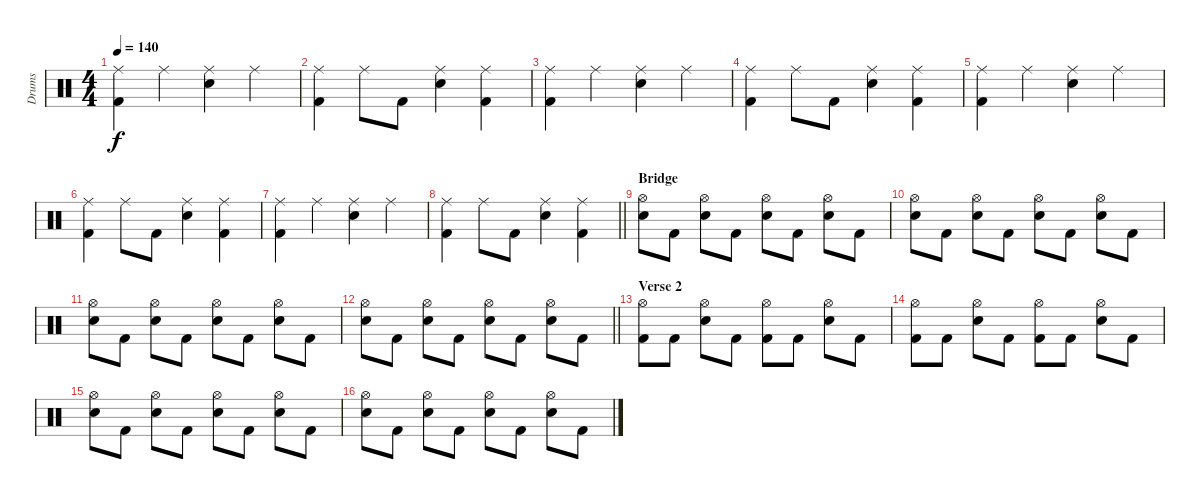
\track ("Drums" "Drums") {instrument percussion}
\staff {score}
\articulation defaults
\ts (4 4)
\tempo 140
\clef neutral
\ks c
("Ride (middle)" "Kick (hit) 2").4{dy f} "Ride (middle)".4 ("Snare (hit) 2" "Ride (middle)").4 "Ride (middle)".4 |
("Kick (hit) 2" "Ride (middle)").4 "Ride (middle)".8 "Kick (hit) 2".8 ("Ride (middle)" "Snare (hit) 2").4 ("Ride (middle)" "Kick (hit) 2").4 |
("Ride (middle)" "Kick (hit) 2").4 "Ride (middle)".4 ("Snare (hit) 2" "Ride (middle)").4 "Ride (middle)".4 |
("Kick (hit) 2" "Ride (middle)").4 "Ride (middle)".8 "Kick (hit) 2".8 ("Ride (middle)" "Snare (hit) 2").4 ("Ride (middle)" "Kick (hit) 2").4 |
("Ride (middle)" "Kick (hit) 2").4 "Ride (middle)".4 ("Snare (hit) 2" "Ride (middle)").4 "Ride (middle)".4 |
("Kick (hit) 2" "Ride (middle)").4 "Ride (middle)".8 "Kick (hit) 2".8 ("Ride (middle)" "Snare (hit) 2").4 ("Ride (middle)" "Kick (hit) 2").4 |
("Ride (middle)" "Kick (hit) 2").4 "Ride (middle)".4 ("Snare (hit) 2" "Ride (middle)").4 "Ride (middle)".4 |
\barLineRight lightlight
("Kick (hit) 2" "Ride (middle)").4 "Ride (middle)".8 "Kick (hit) 2".8 ("Ride (middle)" "Snare (hit) 2").4 ("Ride (middle)" "Kick (hit) 2").4 |
\section ("" "Bridge")
("Snare (hit) 2" "Hi-Hat (open)").8 "Kick (hit) 2".8 ("Snare (hit) 2" "Hi-Hat (open)").8 "Kick (hit) 2".8 ("Snare (hit) 2" "Hi-Hat (open)").8 "Kick (hit) 2".8 ("Snare (hit) 2" "Hi-Hat (open)").8 "Kick (hit) 2".8 |
("Snare (hit) 2" "Hi-Hat (open)").8 "Kick (hit) 2".8 ("Snare (hit) 2" "Hi-Hat (open)").8 "Kick (hit) 2".8 ("Snare (hit) 2" "Hi-Hat (open)").8 "Kick (hit) 2".8 ("Snare (hit) 2" "Hi-Hat (open)").8 "Kick (hit) 2".8 |
("Snare (hit) 2" "Hi-Hat (open)").8 "Kick (hit) 2".8 ("Snare (hit) 2" "Hi-Hat (open)").8 "Kick (hit) 2".8 ("Snare (hit) 2" "Hi-Hat (open)").8 "Kick (hit) 2".8 ("Snare (hit) 2" "Hi-Hat (open)").8 "Kick (hit) 2".8 |
\barLineRight lightlight
("Snare (hit) 2" "Hi-Hat (open)").8 "Kick (hit) 2".8 ("Snare (hit) 2" "Hi-Hat (open)").8 "Kick (hit) 2".8 ("Snare (hit) 2" "Hi-Hat (open)").8 "Kick (hit) 2".8 ("Snare (hit) 2" "Hi-Hat (open)").8 "Kick (hit) 2".8 |
\section ("" "Verse 2")
("Kick (hit) 2" "Hi-Hat (open)").8 "Kick (hit) 2".8 ("Snare (hit) 2" "Hi-Hat (open)").8 "Kick (hit) 2".8 ("Kick (hit) 2" "Hi-Hat (open)").8 "Kick (hit) 2".8 ("Snare (hit) 2" "Hi-Hat (open)").8 "Kick (hit) 2".8 |
("Kick (hit) 2" "Hi-Hat (open)").8 "Kick (hit) 2".8 ("Snare (hit) 2" "Hi-Hat (open)").8 "Kick (hit) 2".8 ("Kick (hit) 2" "Hi-Hat (open)").8 "Kick (hit) 2".8 ("Snare (hit) 2" "Hi-Hat (open)").8 "Kick (hit) 2".8 |
("Snare (hit) 2" "Hi-Hat (open)").8 "Kick (hit) 2".8 ("Snare (hit) 2" "Hi-Hat (open)").8 "Kick (hit) 2".8 ("Snare (hit) 2" "Hi-Hat (open)").8 "Kick (hit) 2".8 ("Snare (hit) 2" "Hi-Hat (open)").8 "Kick (hit) 2".8 |
("Snare (hit) 2" "Hi-Hat (open)").8 "Kick (hit) 2".8 ("Snare (hit) 2" "Hi-Hat (open)").8 "Kick (hit) 2".8 ("Snare (hit) 2" "Hi-Hat (open)").8 "Kick (hit) 2".8 ("Snare (hit) 2" "Hi-Hat (open)").8 "Kick (hit) 2".8
